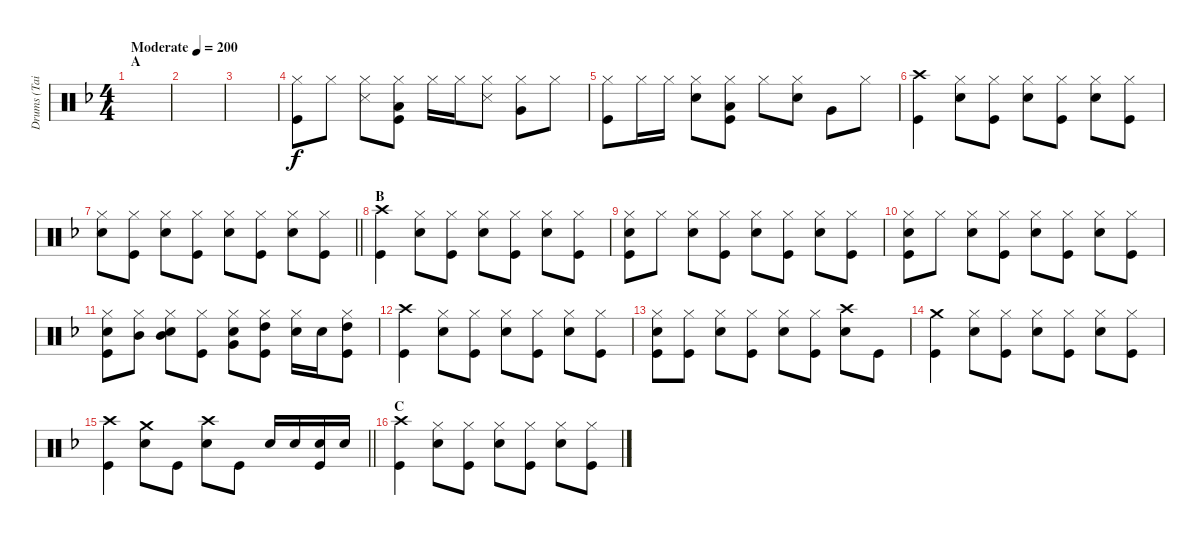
\track ("Drums (Tainaka Ritsu)" "Drums (Tai") {instrument percussion}
\staff {score}
\articulation defaults
\ts (4 4)
\section ("" "A")
\tempo (200 "Moderate")
\clef neutral
\ks f
|
|
|
("Hi-Hat (closed)" "Kick (hit)").8 "Hi-Hat (closed)".8 ("Hi-Hat (closed)" "Snare (side stick) 3").8 ("Hi-Hat (closed)" "Low Tom (hit)" "Kick (hit)").8 "Hi-Hat (closed)".16 "Hi-Hat (closed)".16 ("Hi-Hat (closed)" "Snare (side stick) 3").8 ("Hi-Hat (closed)" "Very Low Tom (hit)").8 "Hi-Hat (closed)".8 |
("Hi-Hat (closed)" "Kick (hit)").8 "Hi-Hat (closed)".16 "Hi-Hat (closed)".16 ("Hi-Hat (closed)" "Snare (hit) 2").8 ("Hi-Hat (closed)" "Low Tom (hit)" "Kick (hit)").8 "Hi-Hat (closed)".8 ("Hi-Hat (closed)" "Snare (hit) 2").8 "Very Low Tom (hit)".8 "Hi-Hat (closed)".8 |
("Crash high (hit)" "Kick (hit)").4 ("Hi-Hat (closed)" "Snare (hit) 2").8 ("Hi-Hat (closed)" "Kick (hit)").8 ("Hi-Hat (closed)" "Snare (hit) 2").8 ("Hi-Hat (closed)" "Kick (hit)").8 ("Hi-Hat (closed)" "Snare (hit) 2").8 ("Hi-Hat (closed)" "Kick (hit)").8 |
\barLineRight lightlight
("Hi-Hat (closed)" "Snare (hit) 2").8 ("Hi-Hat (closed)" "Kick (hit)").8 ("Hi-Hat (closed)" "Snare (hit) 2").8 ("Hi-Hat (closed)" "Kick (hit)").8 ("Hi-Hat (closed)" "Snare (hit) 2").8 ("Hi-Hat (closed)" "Kick (hit)").8 ("Hi-Hat (closed)" "Snare (hit) 2").8 ("Hi-Hat (closed)" "Kick (hit)").8 |
\section ("" "B")
("Crash high (hit)" "Kick (hit)").4 ("Hi-Hat (closed)" "Snare (hit) 2").8 ("Hi-Hat (closed)" "Kick (hit)").8 ("Hi-Hat (closed)" "Snare (hit) 2").8 ("Hi-Hat (closed)" "Kick (hit)").8 ("Hi-Hat (closed)" "Snare (hit) 2").8 ("Hi-Hat (closed)" "Kick (hit)").8 |
("Hi-Hat (closed)" "Snare (hit) 2" "Kick (hit)").8 "Hi-Hat (closed)".8 ("Hi-Hat (closed)" "Snare (hit) 2").8 ("Hi-Hat (closed)" "Kick (hit)").8 ("Hi-Hat (closed)" "Snare (hit) 2").8 ("Hi-Hat (closed)" "Kick (hit)").8 ("Hi-Hat (closed)" "Snare (hit) 2").8 ("Hi-Hat (closed)" "Kick (hit)").8 |
("Hi-Hat (closed)" "Snare (hit) 2" "Kick (hit)").8 "Hi-Hat (closed)".8 ("Hi-Hat (closed)" "Snare (hit) 2").8 ("Hi-Hat (closed)" "Kick (hit)").8 ("Hi-Hat (closed)" "Snare (hit) 2").8 ("Hi-Hat (closed)" "Kick (hit)").8 ("Hi-Hat (closed)" "Snare (hit) 2").8 ("Hi-Hat (closed)" "Kick (hit)").8 |
("Hi-Hat (closed)" "Snare (hit) 2" "Kick (hit)").8 ("Hi-Hat (closed)" "Mid Tom (hit)").8 ("Hi-Hat (closed)" "Snare (hit) 2" "Mid Tom (hit)").8 ("Hi-Hat (closed)" "Kick (hit)").8 ("Hi-Hat (closed)" "Snare (hit) 2" "Very Low Tom (hit)").8 ("Hi-Hat (closed)" "High Tom (hit)" "Kick (hit)").8 ("Hi-Hat (closed)" "Snare (hit) 2").16 "Snare (hit) 2".16 ("Hi-Hat (closed)" "High Tom (hit)" "Kick (hit)").8 |
("Crash high (hit)" "Kick (hit)").4 ("Hi-Hat (closed)" "Snare (hit) 2").8 ("Hi-Hat (closed)" "Kick (hit)").8 ("Hi-Hat (closed)" "Snare (hit) 2").8 ("Hi-Hat (closed)" "Kick (hit)").8 ("Hi-Hat (closed)" "Snare (hit) 2").8 ("Hi-Hat (closed)" "Kick (hit)").8 |
("Hi-Hat (closed)" "Snare (hit) 2" "Kick (hit)").8 ("Hi-Hat (closed)" "Kick (hit)").8 ("Hi-Hat (closed)" "Snare (hit) 2").8 ("Hi-Hat (closed)" "Kick (hit)").8 ("Hi-Hat (closed)" "Snare (hit) 2").8 ("Hi-Hat (closed)" "Kick (hit)").8 ("Crash high (hit)" "Snare (hit) 2").8 "Kick (hit)".8 |
("Crash medium (hit)" "Kick (hit)").4 ("Hi-Hat (closed)" "Snare (hit) 2").8 ("Hi-Hat (closed)" "Kick (hit)").8 ("Hi-Hat (closed)" "Snare (hit) 2").8 ("Hi-Hat (closed)" "Kick (hit)").8 ("Hi-Hat (closed)" "Snare (hit) 2").8 ("Hi-Hat (closed)" "Kick (hit)").8 |
\barLineRight lightlight
("Crash high (hit)" "Kick (hit)").4 ("Crash medium (hit)" "Snare (hit) 2").8 "Kick (hit)".8 ("Crash high (hit)" "Snare (hit) 2").8 "Kick (hit)".8 "Snare (hit) 2".16 "Snare (hit) 2".16 ("Snare (hit) 2" "Kick (hit)").16 "Snare (hit) 2".16 |
\section ("" "C")
("Crash high (hit)" "Kick (hit)").4 ("Hi-Hat (closed)" "Snare (hit) 2").8 ("Hi-Hat (closed)" "Kick (hit)").8 ("Hi-Hat (closed)" "Snare (hit) 2").8 ("Hi-Hat (closed)" "Kick (hit)").8 ("Hi-Hat (closed)" "Snare (hit) 2").8 ("Hi-Hat (closed)" "Kick (hit)").8
